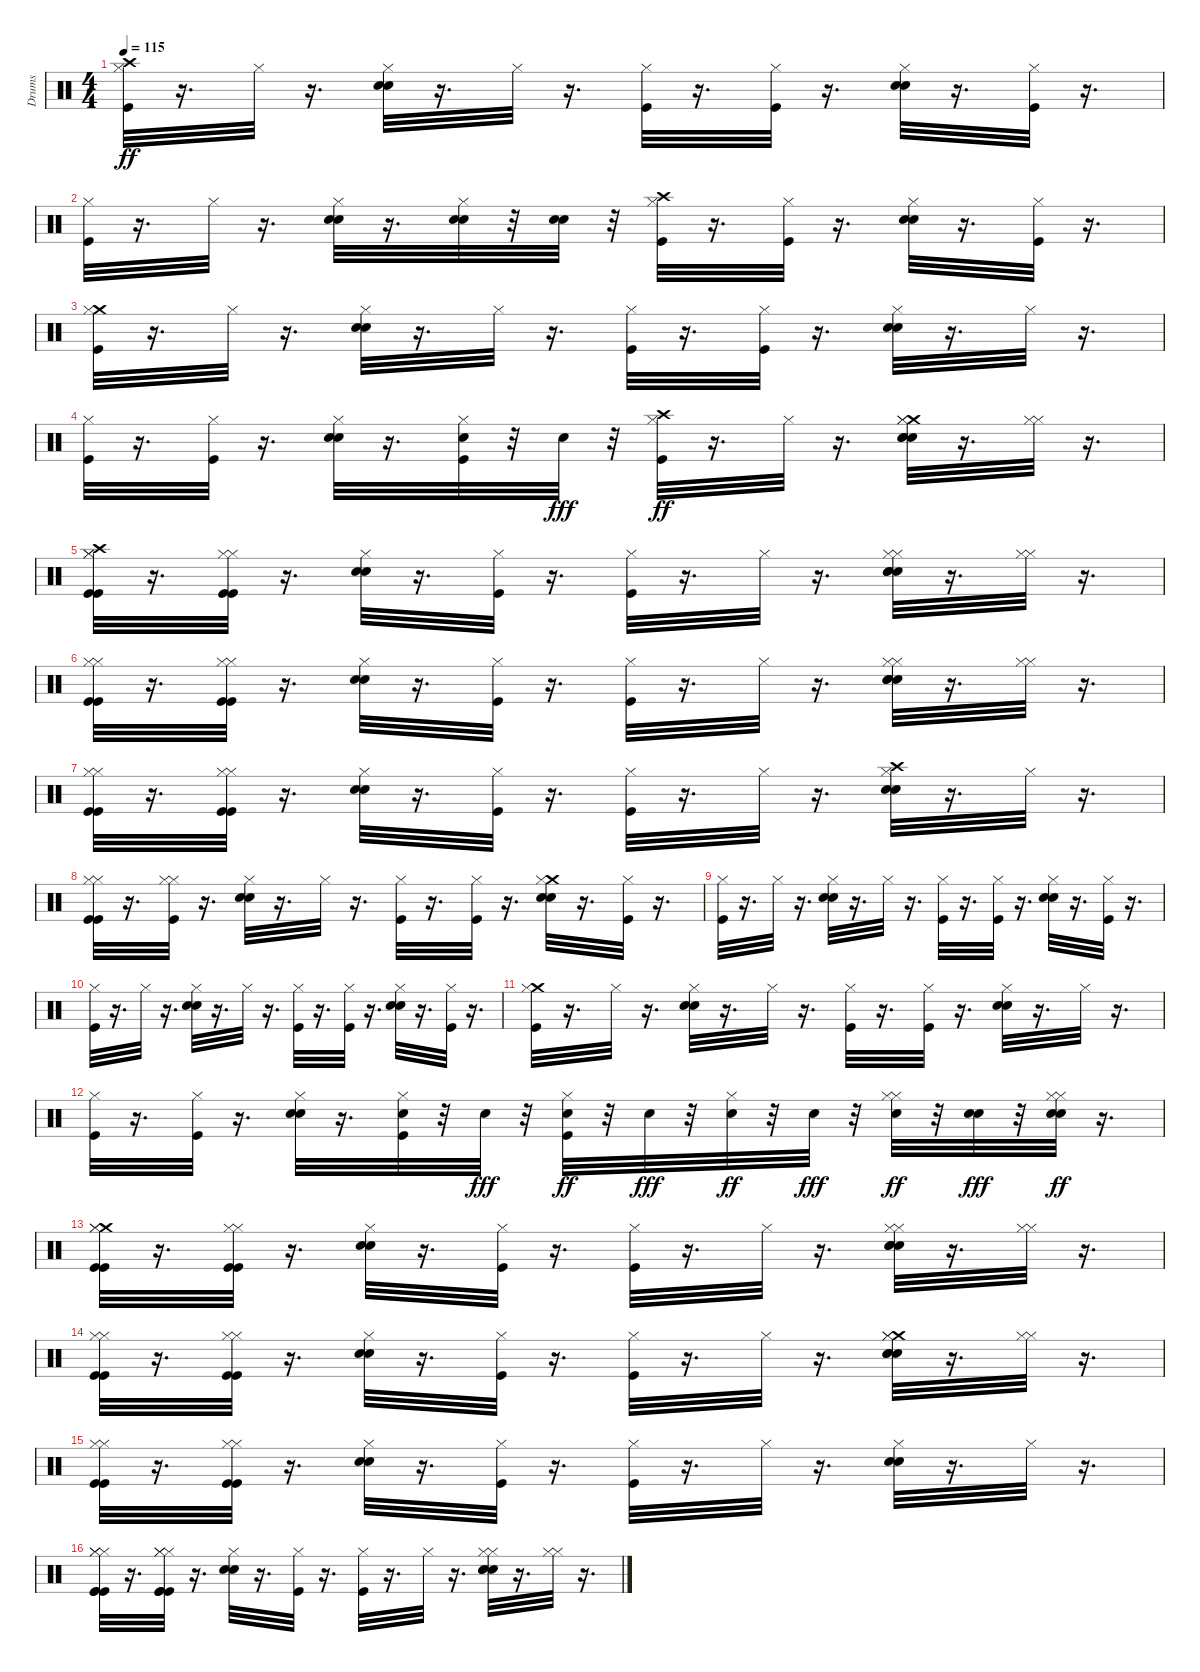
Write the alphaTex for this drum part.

\track ("Drums" "Drums") {instrument percussion}
\staff {score}
\articulation defaults
\ts (4 4)
\tempo 115
\clef neutral
\ks c
("Crash high (hit)" "Kick (hit)" "Hi-Hat (closed)").32{dy ff} r.16{d} "Hi-Hat (closed)".32 r.16{d} ("Electric Snare (hit)" "Snare (hit) 2" "Hi-Hat (closed)").32 r.16{d} "Hi-Hat (closed)".32 r.16{d} ("Kick (hit)" "Hi-Hat (closed)").32 r.16{d} ("Kick (hit)" "Hi-Hat (closed)").32 r.16{d} ("Electric Snare (hit)" "Hi-Hat (closed)" "Snare (hit) 2").32 r.16{d} ("Kick (hit)" "Hi-Hat (closed)").32 r.16{d} |
("Kick (hit)" "Hi-Hat (closed)").32 r.16{d} "Hi-Hat (closed)".32 r.16{d} ("Electric Snare (hit)" "Snare (hit) 2" "Hi-Hat (closed)").32 r.16{d} ("Snare (hit) 2" "Electric Snare (hit)" "Hi-Hat (closed)").32 r.32 ("Snare (hit) 2" "Electric Snare (hit)").32 r.32 ("Crash high (hit)" "Kick (hit)" "Hi-Hat (closed)").32 r.16{d} ("Kick (hit)" "Hi-Hat (closed)").32 r.16{d} ("Electric Snare (hit)" "Hi-Hat (closed)" "Snare (hit) 2").32 r.16{d} ("Kick (hit)" "Hi-Hat (closed)").32 r.16{d} |
("Crash medium (hit)" "Kick (hit)" "Hi-Hat (closed)").32 r.16{d} "Hi-Hat (closed)".32 r.16{d} ("Electric Snare (hit)" "Snare (hit) 2" "Hi-Hat (closed)").32 r.16{d} "Hi-Hat (closed)".32 r.16{d} ("Kick (hit)" "Hi-Hat (closed)").32 r.16{d} ("Kick (hit)" "Hi-Hat (closed)").32 r.16{d} ("Electric Snare (hit)" "Snare (hit) 2" "Hi-Hat (closed)").32 r.16{d} "Hi-Hat (closed)".32 r.16{d} |
("Kick (hit)" "Hi-Hat (closed)").32 r.16{d} ("Kick (hit)" "Hi-Hat (closed)").32 r.16{d} ("Electric Snare (hit)" "Hi-Hat (closed)" "Snare (hit) 2").32 r.16{d} ("Electric Snare (hit)" "Kick (hit)" "Hi-Hat (closed)").32 r.32 "Snare (hit) 2".32{dy fff} r.32 ("Crash high (hit)" "Kick (hit)" "Hi-Hat (closed)").32{dy ff} r.16{d} "Hi-Hat (closed)".32 r.16{d} ("Crash medium (hit)" "Electric Snare (hit)" "Snare (hit) 2" "Hi-Hat (closed)" "Snare (hit) 2" "Hi-Hat (closed)").32 r.16{d} ("Hi-Hat (closed)" "Hi-Hat (closed)").32 r.16{d} |
("Crash high (hit)" "Kick (hit)" "Hi-Hat (closed)" "Kick (hit)" "Hi-Hat (closed)").32 r.16{d} ("Kick (hit)" "Hi-Hat (closed)" "Kick (hit)" "Hi-Hat (closed)").32 r.16{d} ("Electric Snare (hit)" "Hi-Hat (closed)" "Snare (hit) 2").32 r.16{d} ("Kick (hit)" "Hi-Hat (closed)").32 r.16{d} ("Kick (hit)" "Hi-Hat (closed)").32 r.16{d} "Hi-Hat (closed)".32 r.16{d} ("Electric Snare (hit)" "Snare (hit) 2" "Hi-Hat (closed)" "Snare (hit) 2" "Hi-Hat (closed)").32 r.16{d} ("Hi-Hat (closed)" "Hi-Hat (closed)").32 r.16{d} |
("Kick (hit)" "Hi-Hat (closed)" "Kick (hit)" "Hi-Hat (closed)").32 r.16{d} ("Kick (hit)" "Hi-Hat (closed)" "Kick (hit)" "Hi-Hat (closed)").32 r.16{d} ("Electric Snare (hit)" "Hi-Hat (closed)" "Snare (hit) 2").32 r.16{d} ("Kick (hit)" "Hi-Hat (closed)").32 r.16{d} ("Kick (hit)" "Hi-Hat (closed)").32 r.16{d} "Hi-Hat (closed)".32 r.16{d} ("Electric Snare (hit)" "Snare (hit) 2" "Hi-Hat (closed)" "Snare (hit) 2" "Hi-Hat (closed)").32 r.16{d} ("Hi-Hat (closed)" "Hi-Hat (closed)").32 r.16{d} |
("Kick (hit)" "Hi-Hat (closed)" "Kick (hit)" "Hi-Hat (closed)").32 r.16{d} ("Kick (hit)" "Hi-Hat (closed)" "Kick (hit)" "Hi-Hat (closed)").32 r.16{d} ("Electric Snare (hit)" "Hi-Hat (closed)" "Snare (hit) 2").32 r.16{d} ("Kick (hit)" "Hi-Hat (closed)").32 r.16{d} ("Kick (hit)" "Hi-Hat (closed)").32 r.16{d} "Hi-Hat (closed)".32 r.16{d} ("Crash high (hit)" "Electric Snare (hit)" "Snare (hit) 2" "Hi-Hat (closed)").32 r.16{d} "Hi-Hat (closed)".32 r.16{d} |
("Kick (hit)" "Hi-Hat (closed)" "Kick (hit)" "Hi-Hat (closed)").32 r.16{d} ("Kick (hit)" "Hi-Hat (closed)" "Hi-Hat (closed)").32 r.16{d} ("Electric Snare (hit)" "Snare (hit) 2" "Hi-Hat (closed)").32 r.16{d} "Hi-Hat (closed)".32 r.16{d} ("Kick (hit)" "Hi-Hat (closed)").32 r.16{d} ("Kick (hit)" "Hi-Hat (closed)").32 r.16{d} ("Crash medium (hit)" "Electric Snare (hit)" "Hi-Hat (closed)" "Snare (hit) 2").32 r.16{d} ("Kick (hit)" "Hi-Hat (closed)").32 r.16{d} |
("Kick (hit)" "Hi-Hat (closed)").32 r.16{d} "Hi-Hat (closed)".32 r.16{d} ("Electric Snare (hit)" "Snare (hit) 2" "Hi-Hat (closed)").32 r.16{d} "Hi-Hat (closed)".32 r.16{d} ("Kick (hit)" "Hi-Hat (closed)").32 r.16{d} ("Kick (hit)" "Hi-Hat (closed)").32 r.16{d} ("Electric Snare (hit)" "Hi-Hat (closed)" "Snare (hit) 2").32 r.16{d} ("Kick (hit)" "Hi-Hat (closed)").32 r.16{d} |
("Kick (hit)" "Hi-Hat (closed)").32 r.16{d} "Hi-Hat (closed)".32 r.16{d} ("Electric Snare (hit)" "Snare (hit) 2" "Hi-Hat (closed)").32 r.16{d} "Hi-Hat (closed)".32 r.16{d} ("Kick (hit)" "Hi-Hat (closed)").32 r.16{d} ("Kick (hit)" "Hi-Hat (closed)").32 r.16{d} ("Electric Snare (hit)" "Hi-Hat (closed)" "Snare (hit) 2").32 r.16{d} ("Kick (hit)" "Hi-Hat (closed)").32 r.16{d} |
("Crash medium (hit)" "Kick (hit)" "Hi-Hat (closed)").32 r.16{d} "Hi-Hat (closed)".32 r.16{d} ("Electric Snare (hit)" "Snare (hit) 2" "Hi-Hat (closed)").32 r.16{d} "Hi-Hat (closed)".32 r.16{d} ("Kick (hit)" "Hi-Hat (closed)").32 r.16{d} ("Kick (hit)" "Hi-Hat (closed)").32 r.16{d} ("Electric Snare (hit)" "Snare (hit) 2" "Hi-Hat (closed)").32 r.16{d} "Hi-Hat (closed)".32 r.16{d} |
("Kick (hit)" "Hi-Hat (closed)").32 r.16{d} ("Kick (hit)" "Hi-Hat (closed)").32 r.16{d} ("Electric Snare (hit)" "Hi-Hat (closed)" "Snare (hit) 2").32 r.16{d} ("Electric Snare (hit)" "Kick (hit)" "Hi-Hat (closed)").32 r.32 "Electric Snare (hit)".32{dy fff} r.32 ("Electric Snare (hit)" "Kick (hit)" "Hi-Hat (closed)").32{dy ff} r.32 "Electric Snare (hit)".32{dy fff} r.32 ("Electric Snare (hit)" "Hi-Hat (closed)").32{dy ff} r.32 "Electric Snare (hit)".32{dy fff} r.32 ("Snare (hit) 2" "Hi-Hat (closed)" "Hi-Hat (closed)").32{dy ff} r.32 ("Snare (hit) 2" "Electric Snare (hit)").32{dy fff} r.32 ("Snare (hit) 2" "Electric Snare (hit)" "Hi-Hat (closed)" "Hi-Hat (closed)").32{dy ff} r.16{d} |
("Crash medium (hit)" "Kick (hit)" "Hi-Hat (closed)" "Kick (hit)" "Hi-Hat (closed)").32 r.16{d} ("Kick (hit)" "Hi-Hat (closed)" "Kick (hit)" "Hi-Hat (closed)").32 r.16{d} ("Electric Snare (hit)" "Hi-Hat (closed)" "Snare (hit) 2").32 r.16{d} ("Kick (hit)" "Hi-Hat (closed)").32 r.16{d} ("Kick (hit)" "Hi-Hat (closed)").32 r.16{d} "Hi-Hat (closed)".32 r.16{d} ("Electric Snare (hit)" "Snare (hit) 2" "Hi-Hat (closed)" "Snare (hit) 2" "Hi-Hat (closed)").32 r.16{d} ("Hi-Hat (closed)" "Hi-Hat (closed)").32 r.16{d} |
("Kick (hit)" "Hi-Hat (closed)" "Kick (hit)" "Hi-Hat (closed)").32 r.16{d} ("Kick (hit)" "Hi-Hat (closed)" "Kick (hit)" "Hi-Hat (closed)").32 r.16{d} ("Electric Snare (hit)" "Hi-Hat (closed)" "Snare (hit) 2").32 r.16{d} ("Kick (hit)" "Hi-Hat (closed)").32 r.16{d} ("Kick (hit)" "Hi-Hat (closed)").32 r.16{d} "Hi-Hat (closed)".32 r.16{d} ("Crash medium (hit)" "Electric Snare (hit)" "Snare (hit) 2" "Hi-Hat (closed)" "Snare (hit) 2" "Hi-Hat (closed)").32 r.16{d} ("Hi-Hat (closed)" "Hi-Hat (closed)").32 r.16{d} |
("Kick (hit)" "Hi-Hat (closed)" "Kick (hit)" "Hi-Hat (closed)").32 r.16{d} ("Kick (hit)" "Hi-Hat (closed)" "Kick (hit)" "Hi-Hat (closed)").32 r.16{d} ("Electric Snare (hit)" "Hi-Hat (closed)" "Snare (hit) 2").32 r.16{d} ("Kick (hit)" "Hi-Hat (closed)").32 r.16{d} ("Kick (hit)" "Hi-Hat (closed)").32 r.16{d} "Hi-Hat (closed)".32 r.16{d} ("Electric Snare (hit)" "Snare (hit) 2" "Hi-Hat (closed)").32 r.16{d} "Hi-Hat (closed)".32 r.16{d} |
("Kick (hit)" "Hi-Hat (closed)" "Kick (hit)" "Hi-Hat (closed)" "Kick (hit)" "Hi-Hat (closed)").32 r.16{d} ("Kick (hit)" "Hi-Hat (closed)" "Kick (hit)" "Hi-Hat (closed)" "Kick (hit)" "Hi-Hat (closed)").32 r.16{d} ("Electric Snare (hit)" "Hi-Hat (closed)" "Snare (hit) 2").32 r.16{d} ("Kick (hit)" "Hi-Hat (closed)").32 r.16{d} ("Kick (hit)" "Hi-Hat (closed)").32 r.16{d} "Hi-Hat (closed)".32 r.16{d} ("Electric Snare (hit)" "Snare (hit) 2" "Hi-Hat (closed)" "Snare (hit) 2" "Hi-Hat (closed)").32 r.16{d} ("Hi-Hat (closed)" "Hi-Hat (closed)").32 r.16{d}
